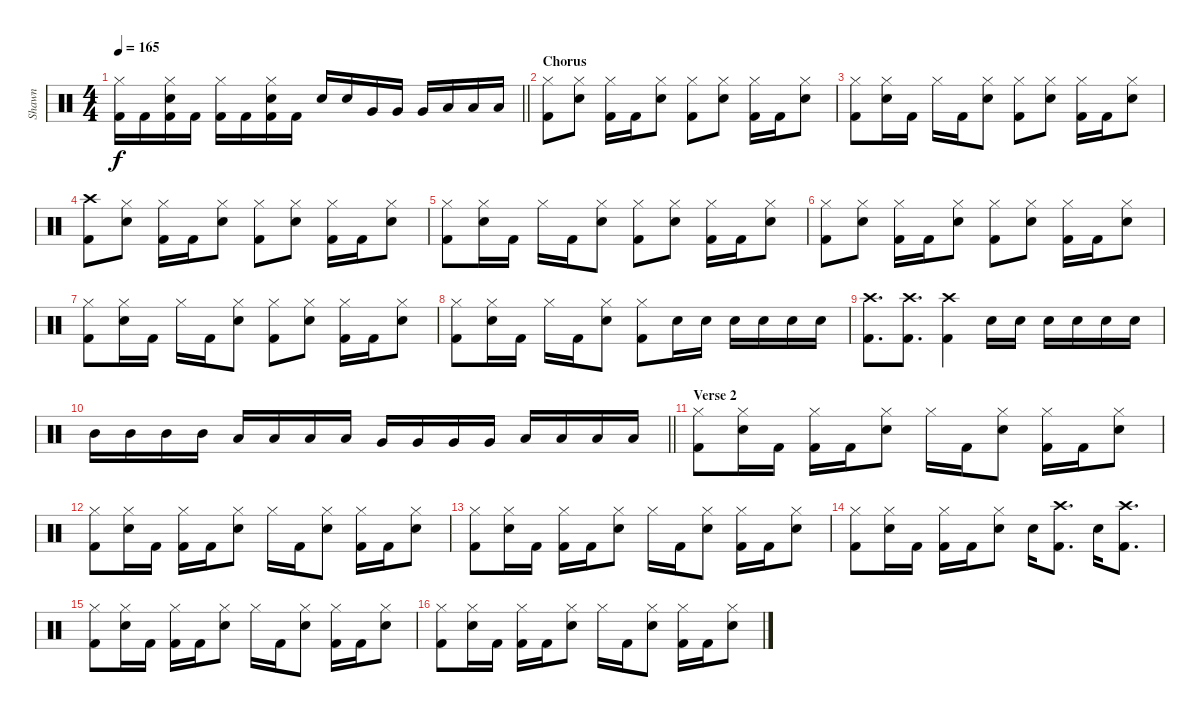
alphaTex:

\track ("Shawn" "Shawn") {instrument percussion}
\staff {score}
\articulation defaults
\ts (4 4)
\tempo 165
\clef neutral
\barLineRight lightlight
\ks c
("Hi-Hat (closed)" "Kick (hit) 2").16{dy f} "Kick (hit) 2".16 ("Hi-Hat (closed)" "Snare (hit) 2" "Kick (hit) 2").16 "Kick (hit) 2".16 ("Hi-Hat (closed)" "Kick (hit) 2").16 "Kick (hit) 2".16 ("Hi-Hat (closed)" "Snare (hit) 2" "Kick (hit) 2").16 "Kick (hit) 2".16 "Snare (hit) 2".16 "Snare (hit) 2".16 "Very Low Tom (hit)".16 "Very Low Tom (hit)".16 "Very Low Tom (hit)".16 "Low Floor Tom (hit)".16 "Low Floor Tom (hit)".16 "Low Floor Tom (hit)".16 |
\section ("" "Chorus")
("Hi-Hat (closed)" "Kick (hit) 2").8 ("Hi-Hat (closed)" "Snare (hit) 2").8 ("Hi-Hat (closed)" "Kick (hit) 2").16 "Kick (hit) 2".16 ("Hi-Hat (closed)" "Snare (hit) 2").8 ("Hi-Hat (closed)" "Kick (hit) 2").8 ("Hi-Hat (closed)" "Snare (hit) 2").8 ("Hi-Hat (closed)" "Kick (hit) 2").16 "Kick (hit) 2".16 ("Hi-Hat (closed)" "Snare (hit) 2").8 |
("Hi-Hat (closed)" "Kick (hit) 2").8 ("Hi-Hat (closed)" "Snare (hit) 2").16 "Kick (hit) 2".16 "Hi-Hat (closed)".16 "Kick (hit) 2".16 ("Hi-Hat (closed)" "Snare (hit) 2").8 ("Hi-Hat (closed)" "Kick (hit) 2").8 ("Hi-Hat (closed)" "Snare (hit) 2").8 ("Hi-Hat (closed)" "Kick (hit) 2").16 "Kick (hit) 2".16 ("Hi-Hat (closed)" "Snare (hit) 2").8 |
("Crash high (hit)" "Kick (hit) 2").8 ("Hi-Hat (closed)" "Snare (hit) 2").8 ("Hi-Hat (closed)" "Kick (hit) 2").16 "Kick (hit) 2".16 ("Hi-Hat (closed)" "Snare (hit) 2").8 ("Hi-Hat (closed)" "Kick (hit) 2").8 ("Hi-Hat (closed)" "Snare (hit) 2").8 ("Hi-Hat (closed)" "Kick (hit) 2").16 "Kick (hit) 2".16 ("Hi-Hat (closed)" "Snare (hit) 2").8 |
("Hi-Hat (closed)" "Kick (hit) 2").8 ("Hi-Hat (closed)" "Snare (hit) 2").16 "Kick (hit) 2".16 "Hi-Hat (closed)".16 "Kick (hit) 2".16 ("Hi-Hat (closed)" "Snare (hit) 2").8 ("Hi-Hat (closed)" "Kick (hit) 2").8 ("Hi-Hat (closed)" "Snare (hit) 2").8 ("Hi-Hat (closed)" "Kick (hit) 2").16 "Kick (hit) 2".16 ("Hi-Hat (closed)" "Snare (hit) 2").8 |
("Hi-Hat (closed)" "Kick (hit) 2").8 ("Hi-Hat (closed)" "Snare (hit) 2").8 ("Hi-Hat (closed)" "Kick (hit) 2").16 "Kick (hit) 2".16 ("Hi-Hat (closed)" "Snare (hit) 2").8 ("Hi-Hat (closed)" "Kick (hit) 2").8 ("Hi-Hat (closed)" "Snare (hit) 2").8 ("Hi-Hat (closed)" "Kick (hit) 2").16 "Kick (hit) 2".16 ("Hi-Hat (closed)" "Snare (hit) 2").8 |
("Hi-Hat (closed)" "Kick (hit) 2").8 ("Hi-Hat (closed)" "Snare (hit) 2").16 "Kick (hit) 2".16 "Hi-Hat (closed)".16 "Kick (hit) 2".16 ("Hi-Hat (closed)" "Snare (hit) 2").8 ("Hi-Hat (closed)" "Kick (hit) 2").8 ("Hi-Hat (closed)" "Snare (hit) 2").8 ("Hi-Hat (closed)" "Kick (hit) 2").16 "Kick (hit) 2".16 ("Hi-Hat (closed)" "Snare (hit) 2").8 |
("Hi-Hat (closed)" "Kick (hit) 2").8 ("Hi-Hat (closed)" "Snare (hit) 2").16 "Kick (hit) 2".16 "Hi-Hat (closed)".16 "Kick (hit) 2".16 ("Hi-Hat (closed)" "Snare (hit) 2").8 ("Hi-Hat (closed)" "Kick (hit) 2").8 "Snare (hit) 2".16 "Snare (hit) 2".16 "Snare (hit) 2".16 "Snare (hit) 2".16 "Snare (hit) 2".16 "Snare (hit) 2".16 |
("Crash high (hit)" "Kick (hit) 2").8{d} ("Crash high (hit)" "Kick (hit) 2").8{d} ("Crash high (hit)" "Kick (hit) 2").4 "Snare (hit) 2".16 "Snare (hit) 2".16 "Snare (hit) 2".16 "Snare (hit) 2".16 "Snare (hit) 2".16 "Snare (hit) 2".16 |
\barLineRight lightlight "Mid Tom (hit)".16 "Mid Tom (hit)".16 "Mid Tom (hit)".16 "Mid Tom (hit)".16 "Low Tom (hit)".16 "Low Tom (hit)".16 "Low Tom (hit)".16 "Low Tom (hit)".16 "Very Low Tom (hit)".16 "Very Low Tom (hit)".16 "Very Low Tom (hit)".16 "Very Low Tom (hit)".16 "Low Floor Tom (hit)".16 "Low Floor Tom (hit)".16 "Low Floor Tom (hit)".16 "Low Floor Tom (hit)".16
|
\section ("" "Verse 2")
("Hi-Hat (closed)" "Kick (hit) 2").8 ("Hi-Hat (closed)" "Snare (hit) 2").16 "Kick (hit) 2".16 ("Hi-Hat (closed)" "Kick (hit) 2").16 "Kick (hit) 2".16 ("Hi-Hat (closed)" "Snare (hit) 2").8 "Hi-Hat (closed)".16 "Kick (hit) 2".16 ("Hi-Hat (closed)" "Snare (hit) 2").8 ("Hi-Hat (closed)" "Kick (hit) 2").16 "Kick (hit) 2".16 ("Hi-Hat (closed)" "Snare (hit) 2").8 |
("Hi-Hat (closed)" "Kick (hit) 2").8 ("Hi-Hat (closed)" "Snare (hit) 2").16 "Kick (hit) 2".16 ("Hi-Hat (closed)" "Kick (hit) 2").16 "Kick (hit) 2".16 ("Hi-Hat (closed)" "Snare (hit) 2").8 "Hi-Hat (closed)".16 "Kick (hit) 2".16 ("Hi-Hat (closed)" "Snare (hit) 2").8 ("Hi-Hat (closed)" "Kick (hit) 2").16 "Kick (hit) 2".16 ("Hi-Hat (closed)" "Snare (hit) 2").8 |
("Hi-Hat (closed)" "Kick (hit) 2").8 ("Hi-Hat (closed)" "Snare (hit) 2").16 "Kick (hit) 2".16 ("Hi-Hat (closed)" "Kick (hit) 2").16 "Kick (hit) 2".16 ("Hi-Hat (closed)" "Snare (hit) 2").8 "Hi-Hat (closed)".16 "Kick (hit) 2".16 ("Hi-Hat (closed)" "Snare (hit) 2").8 ("Hi-Hat (closed)" "Kick (hit) 2").16 "Kick (hit) 2".16 ("Hi-Hat (closed)" "Snare (hit) 2").8 |
("Hi-Hat (closed)" "Kick (hit) 2").8 ("Hi-Hat (closed)" "Snare (hit) 2").16 "Kick (hit) 2".16 ("Hi-Hat (closed)" "Kick (hit) 2").16 "Kick (hit) 2".16 ("Hi-Hat (closed)" "Snare (hit) 2").8 "Snare (hit) 2".16 ("Crash high (hit)" "Kick (hit) 2").8{d} "Snare (hit) 2".16 ("Crash high (hit)" "Kick (hit) 2").8{d} |
("Hi-Hat (closed)" "Kick (hit) 2").8 ("Hi-Hat (closed)" "Snare (hit) 2").16 "Kick (hit) 2".16 ("Hi-Hat (closed)" "Kick (hit) 2").16 "Kick (hit) 2".16 ("Hi-Hat (closed)" "Snare (hit) 2").8 "Hi-Hat (closed)".16 "Kick (hit) 2".16 ("Hi-Hat (closed)" "Snare (hit) 2").8 ("Hi-Hat (closed)" "Kick (hit) 2").16 "Kick (hit) 2".16 ("Hi-Hat (closed)" "Snare (hit) 2").8 |
("Hi-Hat (closed)" "Kick (hit) 2").8 ("Hi-Hat (closed)" "Snare (hit) 2").16 "Kick (hit) 2".16 ("Hi-Hat (closed)" "Kick (hit) 2").16 "Kick (hit) 2".16 ("Hi-Hat (closed)" "Snare (hit) 2").8 "Hi-Hat (closed)".16 "Kick (hit) 2".16 ("Hi-Hat (closed)" "Snare (hit) 2").8 ("Hi-Hat (closed)" "Kick (hit) 2").16 "Kick (hit) 2".16 ("Hi-Hat (closed)" "Snare (hit) 2").8
